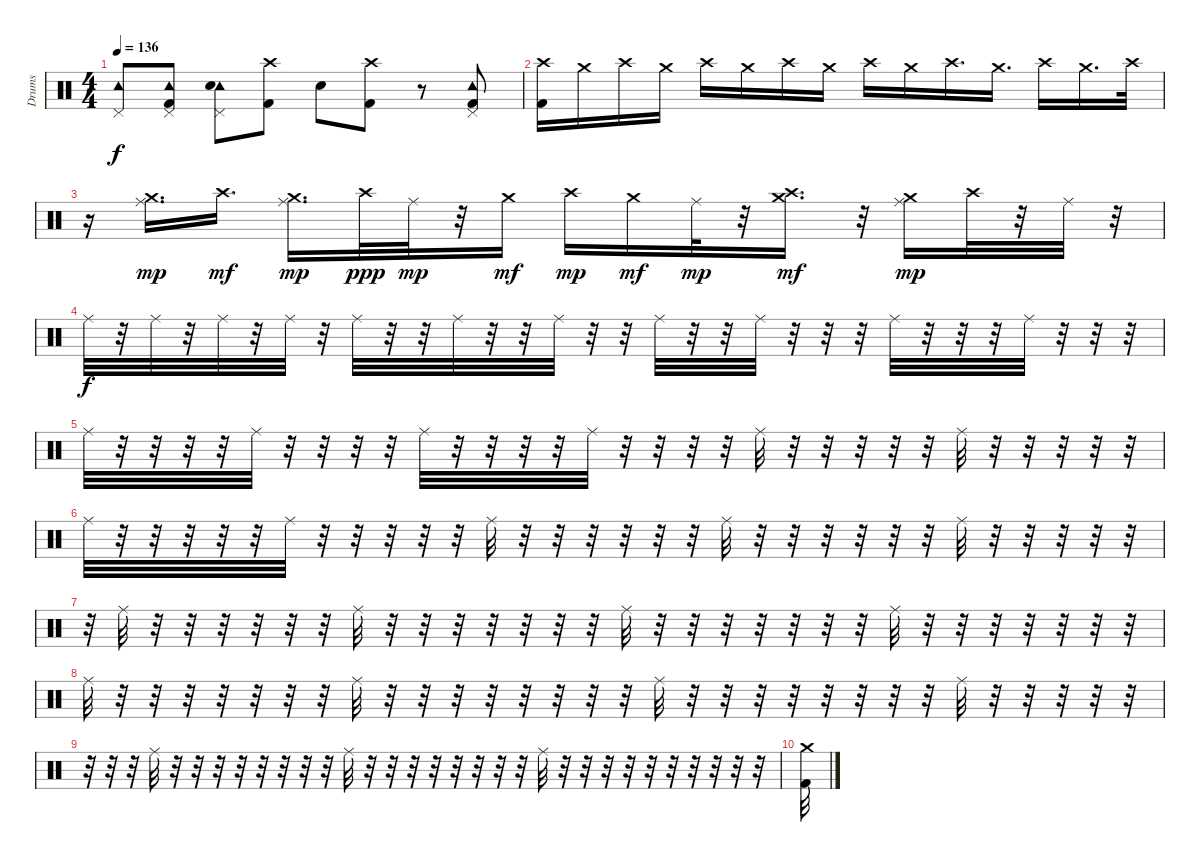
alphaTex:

\track ("Drums" "Drums") {instrument percussion}
\staff {score}
\articulation defaults
\ts (4 4)
\tempo 136
\clef neutral
\ks c
("Pedal Hi-Hat (hit)" "Tambourine (hit)").8{dy f} ("Pedal Hi-Hat (hit)" "Tambourine (hit)" "Kick (hit) 2").8 ("Pedal Hi-Hat (hit)" "Tambourine (hit)" "Snare (hit) 2").8 ("Crash high (hit)" "Kick (hit) 2").8 "Snare (hit) 2".8 ("Crash high (hit)" "Kick (hit) 2").8 r.8 ("Pedal Hi-Hat (hit)" "Tambourine (hit)" "Kick (hit) 2").8 |
("Crash high (hit)" "Kick (hit) 2").16 "Crash medium (hit)".16 "Crash high (hit)".16 "Crash medium (hit)".16 "Crash high (hit)".16 "Crash medium (hit)".16 "Crash high (hit)".16 "Crash medium (hit)".16 "Crash high (hit)".16 "Crash medium (hit)".16 "Crash high (hit)".16{d} "Crash medium (hit)".16{d} "Crash high (hit)".16 "Crash medium (hit)".16{d} "Crash high (hit)".32 |
r.16 ("Crash medium (hit)" "Ride (middle)").16{d dy mp} "Crash high (hit)".16{d dy mf} ("Crash medium (hit)" "Ride (middle)").16{d dy mp} "Crash high (hit)".32{dy ppp} "Ride (middle)".32{dy mp} r.32 "Crash medium (hit)".16{dy mf} "Crash high (hit)".16{dy mp} "Crash medium (hit)".16{dy mf} "Ride (middle)".32{dy mp} r.32 ("Crash high (hit)" "Crash medium (hit)").16{d dy mf} r.32 ("Ride (middle)" "Crash medium (hit)").16{dy mp} "Crash high (hit)".32 r.32 "Ride (middle)".32 r.32 |
"Ride (middle)".32{dy f} r.32 "Ride (middle)".32 r.32 "Ride (middle)".32 r.32 "Ride (middle)".32 r.32 "Ride (middle)".32 r.32 r.32 "Ride (middle)".32 r.32 r.32 "Ride (middle)".32 r.32 r.32 "Ride (middle)".32 r.32 r.32 "Ride (middle)".32 r.32 r.32 r.32 "Ride (middle)".32 r.32 r.32 r.32 "Ride (middle)".32 r.32 r.32 r.32 |
"Ride (middle)".32 r.32 r.32 r.32 r.32 "Ride (middle)".32 r.32 r.32 r.32 r.32 "Ride (middle)".32 r.32 r.32 r.32 r.32 "Ride (middle)".32 r.32 r.32 r.32 r.32 "Ride (middle)".32 r.32 r.32 r.32 r.32 r.32 "Ride (middle)".32 r.32 r.32 r.32 r.32 r.32 |
"Ride (middle)".32 r.32 r.32 r.32 r.32 r.32 "Ride (middle)".32 r.32 r.32 r.32 r.32 r.32 "Ride (middle)".32 r.32 r.32 r.32 r.32 r.32 r.32 "Ride (middle)".32 r.32 r.32 r.32 r.32 r.32 r.32 "Ride (middle)".32 r.32 r.32 r.32 r.32 r.32 |
r.32 "Ride (middle)".32 r.32 r.32 r.32 r.32 r.32 r.32 "Ride (middle)".32 r.32 r.32 r.32 r.32 r.32 r.32 r.32 "Ride (middle)".32 r.32 r.32 r.32 r.32 r.32 r.32 r.32 "Ride (middle)".32 r.32 r.32 r.32 r.32 r.32 r.32 r.32 |
"Ride (middle)".32 r.32 r.32 r.32 r.32 r.32 r.32 r.32 "Ride (middle)".32 r.32 r.32 r.32 r.32 r.32 r.32 r.32 r.32 "Ride (middle)".32 r.32 r.32 r.32 r.32 r.32 r.32 r.32 r.32 "Ride (middle)".32 r.32 r.32 r.32 r.32 r.32 |
r.32 r.32 r.32 "Ride (middle)".32 r.32 r.32 r.32 r.32 r.32 r.32 r.32 r.32 "Ride (middle)".32 r.32 r.32 r.32 r.32 r.32 r.32 r.32 r.32 "Ride (middle)".32 r.32 r.32 r.32 r.32 r.32 r.32 r.32 r.32 r.32 r.32 |
("Crash medium (hit)" "Kick (hit) 2").32
